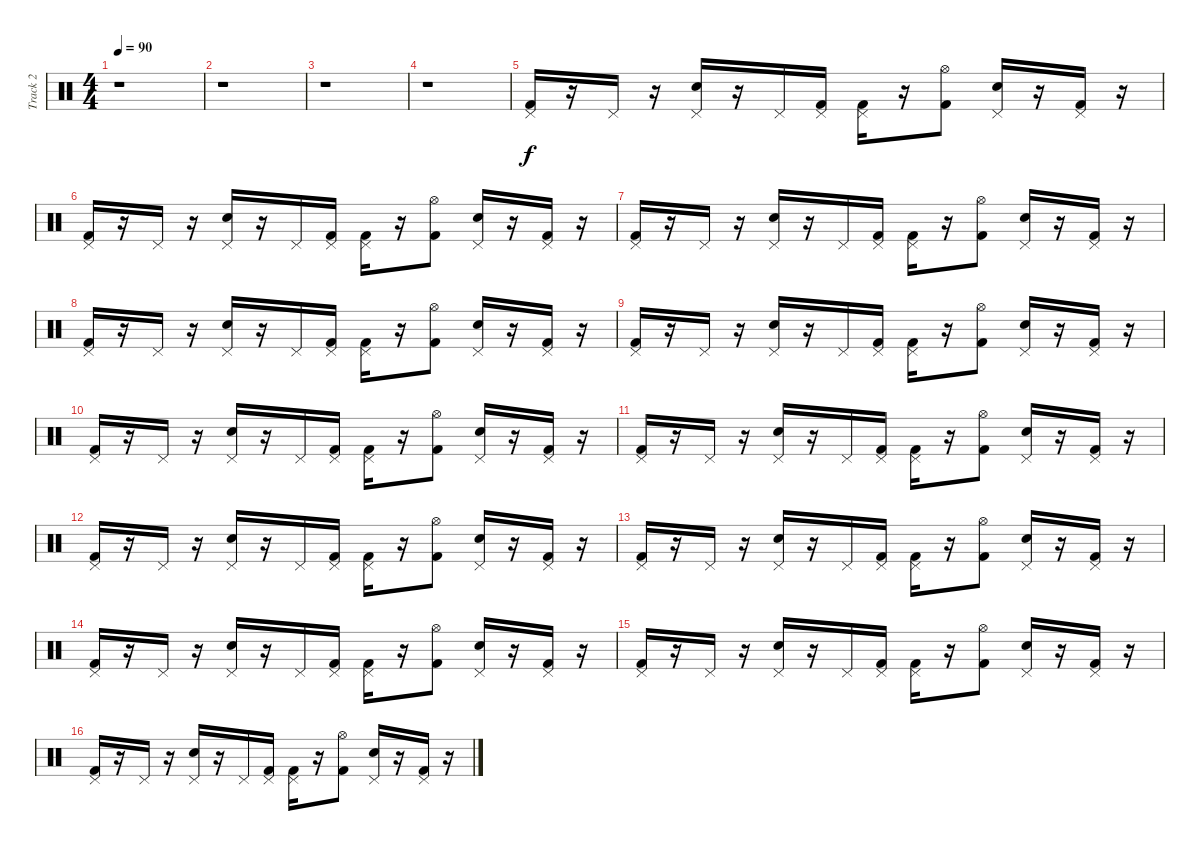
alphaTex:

\track ("Track 2" "Track 2") {instrument percussion}
\staff {score}
\articulation defaults
\ts (4 4)
\tempo 90
\clef neutral
\ks c
r.1{dy f} |
r.1 |
r.1 |
r.1 |
("Pedal Hi-Hat (hit)" "Kick (hit) 2").16 r.16 "Pedal Hi-Hat (hit)".16 r.16 ("Pedal Hi-Hat (hit)" "Electric Snare (hit)").16 r.16 "Pedal Hi-Hat (hit)".16 ("Pedal Hi-Hat (hit)" "Kick (hit) 2").16 ("Pedal Hi-Hat (hit)" "Kick (hit) 2").16 r.16 ("Hi-Hat (open)" "Kick (hit) 2").8 ("Pedal Hi-Hat (hit)" "Electric Snare (hit)").16 r.16 ("Pedal Hi-Hat (hit)" "Kick (hit) 2").16 r.16 |
("Pedal Hi-Hat (hit)" "Kick (hit) 2").16 r.16 "Pedal Hi-Hat (hit)".16 r.16 ("Pedal Hi-Hat (hit)" "Electric Snare (hit)").16 r.16 "Pedal Hi-Hat (hit)".16 ("Pedal Hi-Hat (hit)" "Kick (hit) 2").16 ("Pedal Hi-Hat (hit)" "Kick (hit) 2").16 r.16 ("Hi-Hat (open)" "Kick (hit) 2").8 ("Pedal Hi-Hat (hit)" "Electric Snare (hit)").16 r.16 ("Pedal Hi-Hat (hit)" "Kick (hit) 2").16 r.16 |
("Pedal Hi-Hat (hit)" "Kick (hit) 2").16 r.16 "Pedal Hi-Hat (hit)".16 r.16 ("Pedal Hi-Hat (hit)" "Electric Snare (hit)").16 r.16 "Pedal Hi-Hat (hit)".16 ("Pedal Hi-Hat (hit)" "Kick (hit) 2").16 ("Pedal Hi-Hat (hit)" "Kick (hit) 2").16 r.16 ("Hi-Hat (open)" "Kick (hit) 2").8 ("Pedal Hi-Hat (hit)" "Electric Snare (hit)").16 r.16 ("Pedal Hi-Hat (hit)" "Kick (hit) 2").16 r.16 |
("Pedal Hi-Hat (hit)" "Kick (hit) 2").16 r.16 "Pedal Hi-Hat (hit)".16 r.16 ("Pedal Hi-Hat (hit)" "Electric Snare (hit)").16 r.16 "Pedal Hi-Hat (hit)".16 ("Pedal Hi-Hat (hit)" "Kick (hit) 2").16 ("Pedal Hi-Hat (hit)" "Kick (hit) 2").16 r.16 ("Hi-Hat (open)" "Kick (hit) 2").8 ("Pedal Hi-Hat (hit)" "Electric Snare (hit)").16 r.16 ("Pedal Hi-Hat (hit)" "Kick (hit) 2").16 r.16 |
("Pedal Hi-Hat (hit)" "Kick (hit) 2").16 r.16 "Pedal Hi-Hat (hit)".16 r.16 ("Pedal Hi-Hat (hit)" "Electric Snare (hit)").16 r.16 "Pedal Hi-Hat (hit)".16 ("Pedal Hi-Hat (hit)" "Kick (hit) 2").16 ("Pedal Hi-Hat (hit)" "Kick (hit) 2").16 r.16 ("Hi-Hat (open)" "Kick (hit) 2").8 ("Pedal Hi-Hat (hit)" "Electric Snare (hit)").16 r.16 ("Pedal Hi-Hat (hit)" "Kick (hit) 2").16 r.16 |
("Pedal Hi-Hat (hit)" "Kick (hit) 2").16 r.16 "Pedal Hi-Hat (hit)".16 r.16 ("Pedal Hi-Hat (hit)" "Electric Snare (hit)").16 r.16 "Pedal Hi-Hat (hit)".16 ("Pedal Hi-Hat (hit)" "Kick (hit) 2").16 ("Pedal Hi-Hat (hit)" "Kick (hit) 2").16 r.16 ("Hi-Hat (open)" "Kick (hit) 2").8 ("Pedal Hi-Hat (hit)" "Electric Snare (hit)").16 r.16 ("Pedal Hi-Hat (hit)" "Kick (hit) 2").16 r.16 |
("Pedal Hi-Hat (hit)" "Kick (hit) 2").16 r.16 "Pedal Hi-Hat (hit)".16 r.16 ("Pedal Hi-Hat (hit)" "Electric Snare (hit)").16 r.16 "Pedal Hi-Hat (hit)".16 ("Pedal Hi-Hat (hit)" "Kick (hit) 2").16 ("Pedal Hi-Hat (hit)" "Kick (hit) 2").16 r.16 ("Hi-Hat (open)" "Kick (hit) 2").8 ("Pedal Hi-Hat (hit)" "Electric Snare (hit)").16 r.16 ("Pedal Hi-Hat (hit)" "Kick (hit) 2").16 r.16 |
("Pedal Hi-Hat (hit)" "Kick (hit) 2").16 r.16 "Pedal Hi-Hat (hit)".16 r.16 ("Pedal Hi-Hat (hit)" "Electric Snare (hit)").16 r.16 "Pedal Hi-Hat (hit)".16 ("Pedal Hi-Hat (hit)" "Kick (hit) 2").16 ("Pedal Hi-Hat (hit)" "Kick (hit) 2").16 r.16 ("Hi-Hat (open)" "Kick (hit) 2").8 ("Pedal Hi-Hat (hit)" "Electric Snare (hit)").16 r.16 ("Pedal Hi-Hat (hit)" "Kick (hit) 2").16 r.16 |
("Pedal Hi-Hat (hit)" "Kick (hit) 2").16 r.16 "Pedal Hi-Hat (hit)".16 r.16 ("Pedal Hi-Hat (hit)" "Electric Snare (hit)").16 r.16 "Pedal Hi-Hat (hit)".16 ("Pedal Hi-Hat (hit)" "Kick (hit) 2").16 ("Pedal Hi-Hat (hit)" "Kick (hit) 2").16 r.16 ("Hi-Hat (open)" "Kick (hit) 2").8 ("Pedal Hi-Hat (hit)" "Electric Snare (hit)").16 r.16 ("Pedal Hi-Hat (hit)" "Kick (hit) 2").16 r.16 |
("Pedal Hi-Hat (hit)" "Kick (hit) 2").16 r.16 "Pedal Hi-Hat (hit)".16 r.16 ("Pedal Hi-Hat (hit)" "Electric Snare (hit)").16 r.16 "Pedal Hi-Hat (hit)".16 ("Pedal Hi-Hat (hit)" "Kick (hit) 2").16 ("Pedal Hi-Hat (hit)" "Kick (hit) 2").16 r.16 ("Hi-Hat (open)" "Kick (hit) 2").8 ("Pedal Hi-Hat (hit)" "Electric Snare (hit)").16 r.16 ("Pedal Hi-Hat (hit)" "Kick (hit) 2").16 r.16 |
("Pedal Hi-Hat (hit)" "Kick (hit) 2").16 r.16 "Pedal Hi-Hat (hit)".16 r.16 ("Pedal Hi-Hat (hit)" "Electric Snare (hit)").16 r.16 "Pedal Hi-Hat (hit)".16 ("Pedal Hi-Hat (hit)" "Kick (hit) 2").16 ("Pedal Hi-Hat (hit)" "Kick (hit) 2").16 r.16 ("Hi-Hat (open)" "Kick (hit) 2").8 ("Pedal Hi-Hat (hit)" "Electric Snare (hit)").16 r.16 ("Pedal Hi-Hat (hit)" "Kick (hit) 2").16 r.16 |
("Pedal Hi-Hat (hit)" "Kick (hit) 2").16 r.16 "Pedal Hi-Hat (hit)".16 r.16 ("Pedal Hi-Hat (hit)" "Electric Snare (hit)").16 r.16 "Pedal Hi-Hat (hit)".16 ("Pedal Hi-Hat (hit)" "Kick (hit) 2").16 ("Pedal Hi-Hat (hit)" "Kick (hit) 2").16 r.16 ("Hi-Hat (open)" "Kick (hit) 2").8 ("Pedal Hi-Hat (hit)" "Electric Snare (hit)").16 r.16 ("Pedal Hi-Hat (hit)" "Kick (hit) 2").16 r.16
